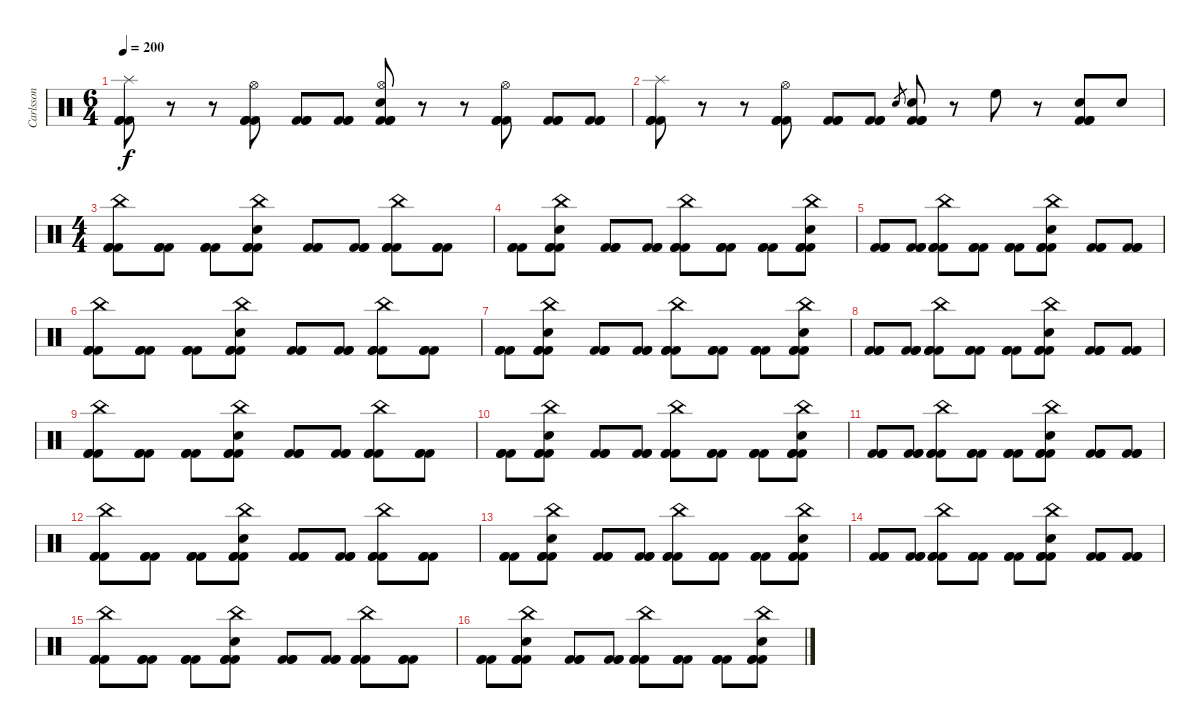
\track ("Carlsson" "Carlsson") {instrument percussion}
\staff {score}
\articulation defaults
\ts (6 4)
\tempo 200
\clef neutral
\ks c
("Splash (hit)" "Kick (hit) 2" "Kick (hit) 2" "Kick (hit) 2").8{dy f} r.8 r.8 ("Hi-Hat (open)" "Kick (hit) 2" "Kick (hit) 2" "Kick (hit) 2").8 ("Kick (hit) 2" "Kick (hit) 2" "Kick (hit) 2").8 ("Kick (hit) 2" "Kick (hit) 2" "Kick (hit) 2").8 ("Hi-Hat (open)" "Snare (hit) 2" "Kick (hit) 2" "Kick (hit) 2" "Kick (hit) 2").8 r.8 r.8 ("Hi-Hat (open)" "Kick (hit) 2" "Kick (hit) 2" "Kick (hit) 2").8 ("Kick (hit) 2" "Kick (hit) 2" "Kick (hit) 2").8 ("Kick (hit) 2" "Kick (hit) 2" "Kick (hit) 2").8 |
("Splash (hit)" "Kick (hit) 2" "Kick (hit) 2" "Kick (hit) 2").8 r.8 r.8 ("Hi-Hat (open)" "Kick (hit) 2" "Kick (hit) 2" "Kick (hit) 2").8 ("Kick (hit) 2" "Kick (hit) 2" "Kick (hit) 2").8 ("Kick (hit) 2" "Kick (hit) 2" "Kick (hit) 2").8 "Snare (hit) 2".8{gr} ("Snare (hit) 2" "Kick (hit) 2" "Kick (hit) 2" "Kick (hit) 2").8 r.8 "High Floor Tom (hit)".8 r.8 ("Snare (hit) 2" "Kick (hit) 2" "Kick (hit) 2" "Kick (hit) 2").8 "Snare (hit) 2".8 |
\ts (4 4)
("China (hit)" "Kick (hit) 2" "Kick (hit) 2" "Kick (hit) 2").8 ("Kick (hit) 2" "Kick (hit) 2" "Kick (hit) 2").8 ("Kick (hit) 2" "Kick (hit) 2" "Kick (hit) 2").8 ("China (hit)" "Snare (hit) 2" "Kick (hit) 2" "Kick (hit) 2" "Kick (hit) 2").8 ("Kick (hit) 2" "Kick (hit) 2" "Kick (hit) 2").8 ("Kick (hit) 2" "Kick (hit) 2" "Kick (hit) 2").8 ("China (hit)" "Kick (hit) 2" "Kick (hit) 2" "Kick (hit) 2").8 ("Kick (hit) 2" "Kick (hit) 2" "Kick (hit) 2").8 |
("Kick (hit) 2" "Kick (hit) 2" "Kick (hit) 2").8 ("China (hit)" "Snare (hit) 2" "Kick (hit) 2" "Kick (hit) 2" "Kick (hit) 2").8 ("Kick (hit) 2" "Kick (hit) 2" "Kick (hit) 2").8 ("Kick (hit) 2" "Kick (hit) 2" "Kick (hit) 2").8 ("China (hit)" "Kick (hit) 2" "Kick (hit) 2" "Kick (hit) 2").8 ("Kick (hit) 2" "Kick (hit) 2" "Kick (hit) 2").8 ("Kick (hit) 2" "Kick (hit) 2" "Kick (hit) 2").8 ("China (hit)" "Snare (hit) 2" "Kick (hit) 2" "Kick (hit) 2" "Kick (hit) 2").8 |
("Kick (hit) 2" "Kick (hit) 2" "Kick (hit) 2").8 ("Kick (hit) 2" "Kick (hit) 2" "Kick (hit) 2").8 ("China (hit)" "Kick (hit) 2" "Kick (hit) 2" "Kick (hit) 2").8 ("Kick (hit) 2" "Kick (hit) 2" "Kick (hit) 2").8 ("Kick (hit) 2" "Kick (hit) 2" "Kick (hit) 2").8 ("China (hit)" "Snare (hit) 2" "Kick (hit) 2" "Kick (hit) 2" "Kick (hit) 2").8 ("Kick (hit) 2" "Kick (hit) 2" "Kick (hit) 2").8 ("Kick (hit) 2" "Kick (hit) 2" "Kick (hit) 2").8 |
("China (hit)" "Kick (hit) 2" "Kick (hit) 2" "Kick (hit) 2").8 ("Kick (hit) 2" "Kick (hit) 2" "Kick (hit) 2").8 ("Kick (hit) 2" "Kick (hit) 2" "Kick (hit) 2").8 ("China (hit)" "Snare (hit) 2" "Kick (hit) 2" "Kick (hit) 2" "Kick (hit) 2").8 ("Kick (hit) 2" "Kick (hit) 2" "Kick (hit) 2").8 ("Kick (hit) 2" "Kick (hit) 2" "Kick (hit) 2").8 ("China (hit)" "Kick (hit) 2" "Kick (hit) 2" "Kick (hit) 2").8 ("Kick (hit) 2" "Kick (hit) 2" "Kick (hit) 2").8 |
("Kick (hit) 2" "Kick (hit) 2" "Kick (hit) 2").8 ("China (hit)" "Snare (hit) 2" "Kick (hit) 2" "Kick (hit) 2" "Kick (hit) 2").8 ("Kick (hit) 2" "Kick (hit) 2" "Kick (hit) 2").8 ("Kick (hit) 2" "Kick (hit) 2" "Kick (hit) 2").8 ("China (hit)" "Kick (hit) 2" "Kick (hit) 2" "Kick (hit) 2").8 ("Kick (hit) 2" "Kick (hit) 2" "Kick (hit) 2").8 ("Kick (hit) 2" "Kick (hit) 2" "Kick (hit) 2").8 ("China (hit)" "Snare (hit) 2" "Kick (hit) 2" "Kick (hit) 2" "Kick (hit) 2").8 |
("Kick (hit) 2" "Kick (hit) 2" "Kick (hit) 2").8 ("Kick (hit) 2" "Kick (hit) 2" "Kick (hit) 2").8 ("China (hit)" "Kick (hit) 2" "Kick (hit) 2" "Kick (hit) 2").8 ("Kick (hit) 2" "Kick (hit) 2" "Kick (hit) 2").8 ("Kick (hit) 2" "Kick (hit) 2" "Kick (hit) 2").8 ("China (hit)" "Snare (hit) 2" "Kick (hit) 2" "Kick (hit) 2" "Kick (hit) 2").8 ("Kick (hit) 2" "Kick (hit) 2" "Kick (hit) 2").8 ("Kick (hit) 2" "Kick (hit) 2" "Kick (hit) 2").8 |
("China (hit)" "Kick (hit) 2" "Kick (hit) 2" "Kick (hit) 2").8 ("Kick (hit) 2" "Kick (hit) 2" "Kick (hit) 2").8 ("Kick (hit) 2" "Kick (hit) 2" "Kick (hit) 2").8 ("China (hit)" "Snare (hit) 2" "Kick (hit) 2" "Kick (hit) 2" "Kick (hit) 2").8 ("Kick (hit) 2" "Kick (hit) 2" "Kick (hit) 2").8 ("Kick (hit) 2" "Kick (hit) 2" "Kick (hit) 2").8 ("China (hit)" "Kick (hit) 2" "Kick (hit) 2" "Kick (hit) 2").8 ("Kick (hit) 2" "Kick (hit) 2" "Kick (hit) 2").8 |
("Kick (hit) 2" "Kick (hit) 2" "Kick (hit) 2").8 ("China (hit)" "Snare (hit) 2" "Kick (hit) 2" "Kick (hit) 2" "Kick (hit) 2").8 ("Kick (hit) 2" "Kick (hit) 2" "Kick (hit) 2").8 ("Kick (hit) 2" "Kick (hit) 2" "Kick (hit) 2").8 ("China (hit)" "Kick (hit) 2" "Kick (hit) 2" "Kick (hit) 2").8 ("Kick (hit) 2" "Kick (hit) 2" "Kick (hit) 2").8 ("Kick (hit) 2" "Kick (hit) 2" "Kick (hit) 2").8 ("China (hit)" "Snare (hit) 2" "Kick (hit) 2" "Kick (hit) 2" "Kick (hit) 2").8 |
("Kick (hit) 2" "Kick (hit) 2" "Kick (hit) 2").8 ("Kick (hit) 2" "Kick (hit) 2" "Kick (hit) 2").8 ("China (hit)" "Kick (hit) 2" "Kick (hit) 2" "Kick (hit) 2").8 ("Kick (hit) 2" "Kick (hit) 2" "Kick (hit) 2").8 ("Kick (hit) 2" "Kick (hit) 2" "Kick (hit) 2").8 ("China (hit)" "Snare (hit) 2" "Kick (hit) 2" "Kick (hit) 2" "Kick (hit) 2").8 ("Kick (hit) 2" "Kick (hit) 2" "Kick (hit) 2").8 ("Kick (hit) 2" "Kick (hit) 2" "Kick (hit) 2").8 |
("China (hit)" "Kick (hit) 2" "Kick (hit) 2" "Kick (hit) 2").8 ("Kick (hit) 2" "Kick (hit) 2" "Kick (hit) 2").8 ("Kick (hit) 2" "Kick (hit) 2" "Kick (hit) 2").8 ("China (hit)" "Snare (hit) 2" "Kick (hit) 2" "Kick (hit) 2" "Kick (hit) 2").8 ("Kick (hit) 2" "Kick (hit) 2" "Kick (hit) 2").8 ("Kick (hit) 2" "Kick (hit) 2" "Kick (hit) 2").8 ("China (hit)" "Kick (hit) 2" "Kick (hit) 2" "Kick (hit) 2").8 ("Kick (hit) 2" "Kick (hit) 2" "Kick (hit) 2").8 |
("Kick (hit) 2" "Kick (hit) 2" "Kick (hit) 2").8 ("China (hit)" "Snare (hit) 2" "Kick (hit) 2" "Kick (hit) 2" "Kick (hit) 2").8 ("Kick (hit) 2" "Kick (hit) 2" "Kick (hit) 2").8 ("Kick (hit) 2" "Kick (hit) 2" "Kick (hit) 2").8 ("China (hit)" "Kick (hit) 2" "Kick (hit) 2" "Kick (hit) 2").8 ("Kick (hit) 2" "Kick (hit) 2" "Kick (hit) 2").8 ("Kick (hit) 2" "Kick (hit) 2" "Kick (hit) 2").8 ("China (hit)" "Snare (hit) 2" "Kick (hit) 2" "Kick (hit) 2" "Kick (hit) 2").8 |
("Kick (hit) 2" "Kick (hit) 2" "Kick (hit) 2").8 ("Kick (hit) 2" "Kick (hit) 2" "Kick (hit) 2").8 ("China (hit)" "Kick (hit) 2" "Kick (hit) 2" "Kick (hit) 2").8 ("Kick (hit) 2" "Kick (hit) 2" "Kick (hit) 2").8 ("Kick (hit) 2" "Kick (hit) 2" "Kick (hit) 2").8 ("China (hit)" "Snare (hit) 2" "Kick (hit) 2" "Kick (hit) 2" "Kick (hit) 2").8 ("Kick (hit) 2" "Kick (hit) 2" "Kick (hit) 2").8 ("Kick (hit) 2" "Kick (hit) 2" "Kick (hit) 2").8 |
("China (hit)" "Kick (hit) 2" "Kick (hit) 2" "Kick (hit) 2").8 ("Kick (hit) 2" "Kick (hit) 2" "Kick (hit) 2").8 ("Kick (hit) 2" "Kick (hit) 2" "Kick (hit) 2").8 ("China (hit)" "Snare (hit) 2" "Kick (hit) 2" "Kick (hit) 2" "Kick (hit) 2").8 ("Kick (hit) 2" "Kick (hit) 2" "Kick (hit) 2").8 ("Kick (hit) 2" "Kick (hit) 2" "Kick (hit) 2").8 ("China (hit)" "Kick (hit) 2" "Kick (hit) 2" "Kick (hit) 2").8 ("Kick (hit) 2" "Kick (hit) 2" "Kick (hit) 2").8 |
("Kick (hit) 2" "Kick (hit) 2" "Kick (hit) 2").8 ("China (hit)" "Snare (hit) 2" "Kick (hit) 2" "Kick (hit) 2" "Kick (hit) 2").8 ("Kick (hit) 2" "Kick (hit) 2" "Kick (hit) 2").8 ("Kick (hit) 2" "Kick (hit) 2" "Kick (hit) 2").8 ("China (hit)" "Kick (hit) 2" "Kick (hit) 2" "Kick (hit) 2").8 ("Kick (hit) 2" "Kick (hit) 2" "Kick (hit) 2").8 ("Kick (hit) 2" "Kick (hit) 2" "Kick (hit) 2").8 ("China (hit)" "Snare (hit) 2" "Kick (hit) 2" "Kick (hit) 2" "Kick (hit) 2").8
